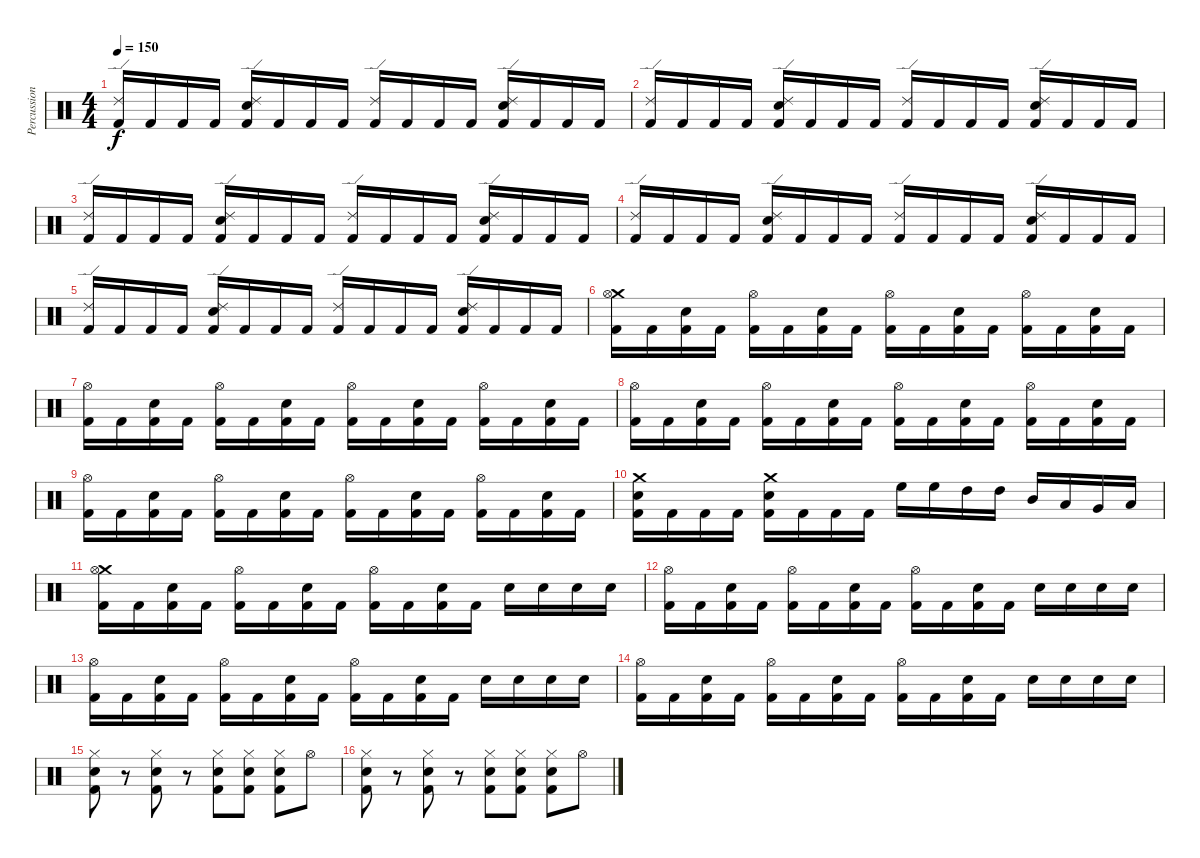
\track ("Percussion" "Percussion") {instrument percussion}
\staff {score}
\articulation defaults
\ts (4 4)
\tempo 150
\clef neutral
\ks c
("Ride (edge) 2" "Kick (hit) 2").16{dy f} "Kick (hit) 2".16 "Kick (hit) 2".16 "Kick (hit) 2".16 ("Ride (edge) 2" "Snare (hit) 2" "Kick (hit) 2").16 "Kick (hit) 2".16 "Kick (hit) 2".16 "Kick (hit) 2".16 ("Ride (edge) 2" "Kick (hit) 2").16 "Kick (hit) 2".16 "Kick (hit) 2".16 "Kick (hit) 2".16 ("Ride (edge) 2" "Snare (hit) 2" "Kick (hit) 2").16 "Kick (hit) 2".16 "Kick (hit) 2".16 "Kick (hit) 2".16 |
("Ride (edge) 2" "Kick (hit) 2").16 "Kick (hit) 2".16 "Kick (hit) 2".16 "Kick (hit) 2".16 ("Ride (edge) 2" "Snare (hit) 2" "Kick (hit) 2").16 "Kick (hit) 2".16 "Kick (hit) 2".16 "Kick (hit) 2".16 ("Ride (edge) 2" "Kick (hit) 2").16 "Kick (hit) 2".16 "Kick (hit) 2".16 "Kick (hit) 2".16 ("Ride (edge) 2" "Snare (hit) 2" "Kick (hit) 2").16 "Kick (hit) 2".16 "Kick (hit) 2".16 "Kick (hit) 2".16 |
("Ride (edge) 2" "Kick (hit) 2").16 "Kick (hit) 2".16 "Kick (hit) 2".16 "Kick (hit) 2".16 ("Ride (edge) 2" "Snare (hit) 2" "Kick (hit) 2").16 "Kick (hit) 2".16 "Kick (hit) 2".16 "Kick (hit) 2".16 ("Ride (edge) 2" "Kick (hit) 2").16 "Kick (hit) 2".16 "Kick (hit) 2".16 "Kick (hit) 2".16 ("Ride (edge) 2" "Snare (hit) 2" "Kick (hit) 2").16 "Kick (hit) 2".16 "Kick (hit) 2".16 "Kick (hit) 2".16 |
("Ride (edge) 2" "Kick (hit) 2").16 "Kick (hit) 2".16 "Kick (hit) 2".16 "Kick (hit) 2".16 ("Ride (edge) 2" "Snare (hit) 2" "Kick (hit) 2").16 "Kick (hit) 2".16 "Kick (hit) 2".16 "Kick (hit) 2".16 ("Ride (edge) 2" "Kick (hit) 2").16 "Kick (hit) 2".16 "Kick (hit) 2".16 "Kick (hit) 2".16 ("Ride (edge) 2" "Snare (hit) 2" "Kick (hit) 2").16 "Kick (hit) 2".16 "Kick (hit) 2".16 "Kick (hit) 2".16 |
("Ride (edge) 2" "Kick (hit) 2").16 "Kick (hit) 2".16 "Kick (hit) 2".16 "Kick (hit) 2".16 ("Ride (edge) 2" "Snare (hit) 2" "Kick (hit) 2").16 "Kick (hit) 2".16 "Kick (hit) 2".16 "Kick (hit) 2".16 ("Ride (edge) 2" "Kick (hit) 2").16 "Kick (hit) 2".16 "Kick (hit) 2".16 "Kick (hit) 2".16 ("Ride (edge) 2" "Snare (hit) 2" "Kick (hit) 2").16 "Kick (hit) 2".16 "Kick (hit) 2".16 "Kick (hit) 2".16 |
("Crash medium (hit)" "Hi-Hat (open)" "Kick (hit) 2").16 "Kick (hit) 2".16 ("Snare (hit) 2" "Kick (hit) 2").16 "Kick (hit) 2".16 ("Hi-Hat (open)" "Kick (hit) 2").16 "Kick (hit) 2".16 ("Snare (hit) 2" "Kick (hit) 2").16 "Kick (hit) 2".16 ("Hi-Hat (open)" "Kick (hit) 2").16 "Kick (hit) 2".16 ("Snare (hit) 2" "Kick (hit) 2").16 "Kick (hit) 2".16 ("Hi-Hat (open)" "Kick (hit) 2").16 "Kick (hit) 2".16 ("Snare (hit) 2" "Kick (hit) 2").16 "Kick (hit) 2".16 |
("Hi-Hat (open)" "Kick (hit) 2").16 "Kick (hit) 2".16 ("Snare (hit) 2" "Kick (hit) 2").16 "Kick (hit) 2".16 ("Hi-Hat (open)" "Kick (hit) 2").16 "Kick (hit) 2".16 ("Snare (hit) 2" "Kick (hit) 2").16 "Kick (hit) 2".16 ("Hi-Hat (open)" "Kick (hit) 2").16 "Kick (hit) 2".16 ("Snare (hit) 2" "Kick (hit) 2").16 "Kick (hit) 2".16 ("Hi-Hat (open)" "Kick (hit) 2").16 "Kick (hit) 2".16 ("Snare (hit) 2" "Kick (hit) 2").16 "Kick (hit) 2".16 |
("Hi-Hat (open)" "Kick (hit) 2").16 "Kick (hit) 2".16 ("Snare (hit) 2" "Kick (hit) 2").16 "Kick (hit) 2".16 ("Hi-Hat (open)" "Kick (hit) 2").16 "Kick (hit) 2".16 ("Snare (hit) 2" "Kick (hit) 2").16 "Kick (hit) 2".16 ("Hi-Hat (open)" "Kick (hit) 2").16 "Kick (hit) 2".16 ("Snare (hit) 2" "Kick (hit) 2").16 "Kick (hit) 2".16 ("Hi-Hat (open)" "Kick (hit) 2").16 "Kick (hit) 2".16 ("Snare (hit) 2" "Kick (hit) 2").16 "Kick (hit) 2".16 |
("Hi-Hat (open)" "Kick (hit) 2").16 "Kick (hit) 2".16 ("Snare (hit) 2" "Kick (hit) 2").16 "Kick (hit) 2".16 ("Hi-Hat (open)" "Kick (hit) 2").16 "Kick (hit) 2".16 ("Snare (hit) 2" "Kick (hit) 2").16 "Kick (hit) 2".16 ("Hi-Hat (open)" "Kick (hit) 2").16 "Kick (hit) 2".16 ("Snare (hit) 2" "Kick (hit) 2").16 "Kick (hit) 2".16 ("Hi-Hat (open)" "Kick (hit) 2").16 "Kick (hit) 2".16 ("Snare (hit) 2" "Kick (hit) 2").16 "Kick (hit) 2".16 |
("Crash medium (hit)" "Kick (hit) 2" "Snare (hit) 2").16 "Kick (hit) 2".16 "Kick (hit) 2".16 "Kick (hit) 2".16 ("Crash medium (hit)" "Kick (hit) 2" "Snare (hit) 2").16 "Kick (hit) 2".16 "Kick (hit) 2".16 "Kick (hit) 2".16 "High Floor Tom (hit)".16 "High Floor Tom (hit)".16 "High Tom (hit)".16 "High Tom (hit)".16 "Mid Tom (hit)".16 "Low Tom (hit)".16 "Very Low Tom (hit)".16 "Low Floor Tom (hit)".16 |
("Crash medium (hit)" "Hi-Hat (open)" "Kick (hit) 2").16 "Kick (hit) 2".16 ("Snare (hit) 2" "Kick (hit) 2").16 "Kick (hit) 2".16 ("Hi-Hat (open)" "Kick (hit) 2").16 "Kick (hit) 2".16 ("Snare (hit) 2" "Kick (hit) 2").16 "Kick (hit) 2".16 ("Hi-Hat (open)" "Kick (hit) 2").16 "Kick (hit) 2".16 ("Snare (hit) 2" "Kick (hit) 2").16 "Kick (hit) 2".16 "Snare (hit) 2".16 "Snare (hit) 2".16 "Snare (hit) 2".16 "Snare (hit) 2".16 |
("Hi-Hat (open)" "Kick (hit) 2").16 "Kick (hit) 2".16 ("Snare (hit) 2" "Kick (hit) 2").16 "Kick (hit) 2".16 ("Hi-Hat (open)" "Kick (hit) 2").16 "Kick (hit) 2".16 ("Snare (hit) 2" "Kick (hit) 2").16 "Kick (hit) 2".16 ("Hi-Hat (open)" "Kick (hit) 2").16 "Kick (hit) 2".16 ("Snare (hit) 2" "Kick (hit) 2").16 "Kick (hit) 2".16 "Snare (hit) 2".16 "Snare (hit) 2".16 "Snare (hit) 2".16 "Snare (hit) 2".16 |
("Hi-Hat (open)" "Kick (hit) 2").16 "Kick (hit) 2".16 ("Snare (hit) 2" "Kick (hit) 2").16 "Kick (hit) 2".16 ("Hi-Hat (open)" "Kick (hit) 2").16 "Kick (hit) 2".16 ("Snare (hit) 2" "Kick (hit) 2").16 "Kick (hit) 2".16 ("Hi-Hat (open)" "Kick (hit) 2").16 "Kick (hit) 2".16 ("Snare (hit) 2" "Kick (hit) 2").16 "Kick (hit) 2".16 "Snare (hit) 2".16 "Snare (hit) 2".16 "Snare (hit) 2".16 "Snare (hit) 2".16 |
("Hi-Hat (open)" "Kick (hit) 2").16 "Kick (hit) 2".16 ("Snare (hit) 2" "Kick (hit) 2").16 "Kick (hit) 2".16 ("Hi-Hat (open)" "Kick (hit) 2").16 "Kick (hit) 2".16 ("Snare (hit) 2" "Kick (hit) 2").16 "Kick (hit) 2".16 ("Hi-Hat (open)" "Kick (hit) 2").16 "Kick (hit) 2".16 ("Snare (hit) 2" "Kick (hit) 2").16 "Kick (hit) 2".16 "Snare (hit) 2".16 "Snare (hit) 2".16 "Snare (hit) 2".16 "Snare (hit) 2".16 |
("Hi-Hat (closed)" "Snare (hit) 2" "Kick (hit) 2").8 r.8 ("Hi-Hat (closed)" "Snare (hit) 2" "Kick (hit) 2").8 r.8 ("Hi-Hat (closed)" "Snare (hit) 2" "Kick (hit) 2").8 ("Hi-Hat (closed)" "Snare (hit) 2" "Kick (hit) 2").8 ("Hi-Hat (closed)" "Snare (hit) 2" "Kick (hit) 2").8 "Hi-Hat (open)".8 |
("Hi-Hat (closed)" "Snare (hit) 2" "Kick (hit) 2").8 r.8 ("Hi-Hat (closed)" "Snare (hit) 2" "Kick (hit) 2").8 r.8 ("Hi-Hat (closed)" "Snare (hit) 2" "Kick (hit) 2").8 ("Hi-Hat (closed)" "Snare (hit) 2" "Kick (hit) 2").8 ("Hi-Hat (closed)" "Snare (hit) 2" "Kick (hit) 2").8 "Hi-Hat (open)".8
